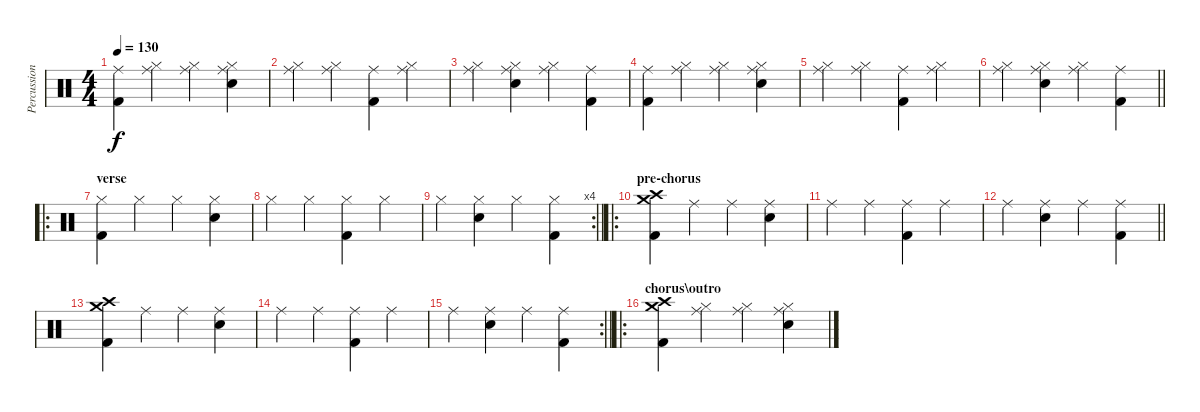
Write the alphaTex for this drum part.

\track ("Percussion" "Percussion") {instrument percussion}
\staff {score}
\articulation defaults
\ts (4 4)
\tempo 130
\clef neutral
\ks c
("Ride (middle)" "Kick (hit) 2").4{dy f} ("Ride (middle)" "Hi-Hat (closed)").4 ("Ride (middle)" "Hi-Hat (closed)").4 ("Ride (middle)" "Hi-Hat (closed)" "Electric Snare (hit)").4 |
("Ride (middle)" "Hi-Hat (closed)").4 ("Ride (middle)" "Hi-Hat (closed)").4 ("Ride (middle)" "Kick (hit) 2").4 ("Ride (middle)" "Hi-Hat (closed)").4 |
("Ride (middle)" "Hi-Hat (closed)").4 ("Ride (middle)" "Hi-Hat (closed)" "Electric Snare (hit)").4 ("Ride (middle)" "Hi-Hat (closed)").4 ("Ride (middle)" "Kick (hit) 2").4 |
("Ride (middle)" "Kick (hit) 2").4 ("Ride (middle)" "Hi-Hat (closed)").4 ("Ride (middle)" "Hi-Hat (closed)").4 ("Ride (middle)" "Hi-Hat (closed)" "Electric Snare (hit)").4 |
("Ride (middle)" "Hi-Hat (closed)").4 ("Ride (middle)" "Hi-Hat (closed)").4 ("Ride (middle)" "Kick (hit) 2").4 ("Ride (middle)" "Hi-Hat (closed)").4 |
\barLineRight lightlight
("Ride (middle)" "Hi-Hat (closed)").4 ("Ride (middle)" "Hi-Hat (closed)" "Electric Snare (hit)").4 ("Ride (middle)" "Hi-Hat (closed)").4 ("Ride (middle)" "Kick (hit) 2").4 |
\ro
\section ("" "verse")
("Hi-Hat (closed)" "Kick (hit) 2").4 "Hi-Hat (closed)".4 "Hi-Hat (closed)".4 ("Hi-Hat (closed)" "Electric Snare (hit)").4 |
"Hi-Hat (closed)".4 "Hi-Hat (closed)".4 ("Hi-Hat (closed)" "Kick (hit) 2").4 "Hi-Hat (closed)".4 |
\rc 4
\barLineRight lightlight "Hi-Hat (closed)".4
("Hi-Hat (closed)" "Electric Snare (hit)").4 "Hi-Hat (closed)".4 ("Hi-Hat (closed)" "Kick (hit) 2").4 |
\ro
\section ("" "pre-chorus")
("Crash high (hit)" "Crash medium (hit)" "Kick (hit) 2").4 "Ride (middle)".4 "Ride (middle)".4 ("Ride (middle)" "Electric Snare (hit)").4 |
"Ride (middle)".4 "Ride (middle)".4 ("Ride (middle)" "Kick (hit) 2").4 "Ride (middle)".4 |
\barLineRight lightlight "Ride (middle)".4
("Ride (middle)" "Electric Snare (hit)").4 "Ride (middle)".4 ("Ride (middle)" "Kick (hit) 2").4 |
("Crash high (hit)" "Crash medium (hit)" "Kick (hit) 2").4 "Ride (middle)".4 "Ride (middle)".4 ("Ride (middle)" "Electric Snare (hit)").4 |
"Ride (middle)".4 "Ride (middle)".4 ("Ride (middle)" "Kick (hit) 2").4 "Ride (middle)".4 |
\rc 2
\barLineRight lightlight "Ride (middle)".4
("Ride (middle)" "Electric Snare (hit)").4 "Ride (middle)".4 ("Ride (middle)" "Kick (hit) 2").4 |
\ro
\section ("" "chorus\\outro")
("Crash high (hit)" "Crash medium (hit)" "Kick (hit) 2").4 ("Ride (middle)" "Hi-Hat (closed)").4 ("Ride (middle)" "Hi-Hat (closed)").4 ("Ride (middle)" "Hi-Hat (closed)" "Electric Snare (hit)").4
